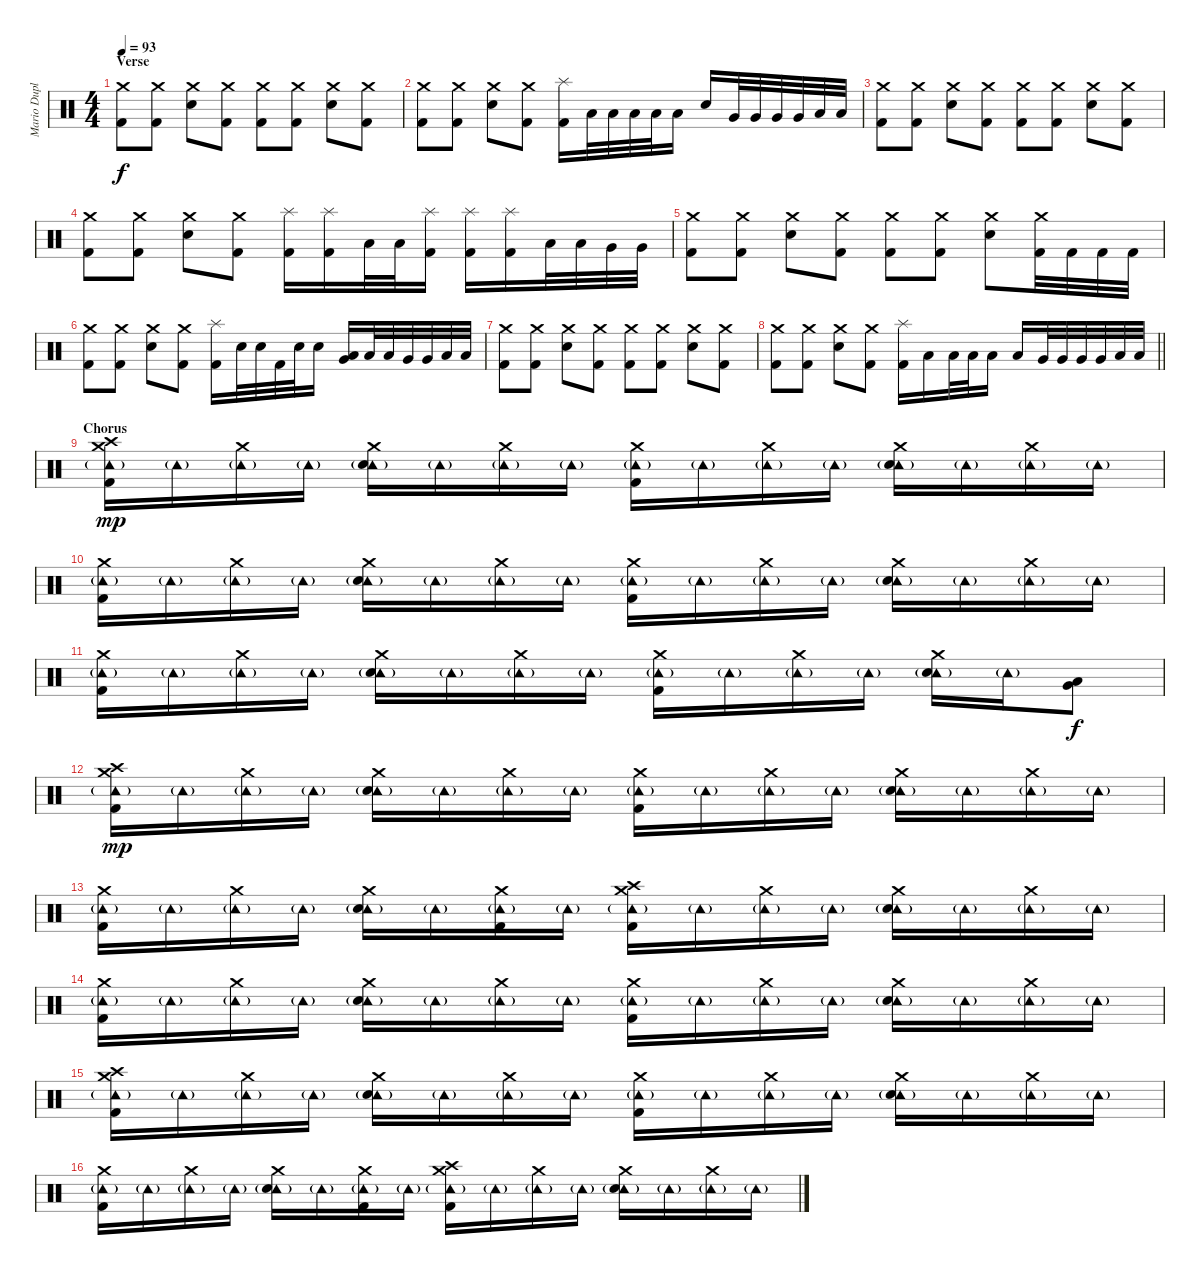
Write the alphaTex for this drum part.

\track ("Mario Duplantier" "Mario Dupl") {instrument percussion}
\staff {score}
\articulation defaults
\ts (4 4)
\section ("" "Verse")
\tempo 93
\clef neutral
\ks c
("Crash medium (hit)" "Kick (hit) 2").8{dy f} ("Crash medium (hit)" "Kick (hit) 2").8 ("Crash medium (hit)" "Electric Snare (hit)").8 ("Crash medium (hit)" "Kick (hit) 2").8 ("Crash medium (hit)" "Kick (hit) 2").8 ("Crash medium (hit)" "Kick (hit) 2").8 ("Crash medium (hit)" "Electric Snare (hit)").8 ("Crash medium (hit)" "Kick (hit) 2").8 |
("Crash medium (hit)" "Kick (hit) 2").8 ("Crash medium (hit)" "Kick (hit) 2").8 ("Crash medium (hit)" "Electric Snare (hit)").8 ("Crash medium (hit)" "Kick (hit) 2").8 ("Splash (hit)" "Kick (hit) 2").16 "Low Tom (hit)".32 "Low Tom (hit)".32 "Low Tom (hit)".32 "Low Tom (hit)".32 "Low Tom (hit)".16 "Electric Snare (hit)".16 "Very Low Tom (hit)".32 "Very Low Tom (hit)".32 "Very Low Tom (hit)".32 "Very Low Tom (hit)".32 "Low Floor Tom (hit)".32 "Low Floor Tom (hit)".32 |
("Crash medium (hit)" "Kick (hit) 2").8 ("Crash medium (hit)" "Kick (hit) 2").8 ("Crash medium (hit)" "Electric Snare (hit)").8 ("Crash medium (hit)" "Kick (hit) 2").8 ("Crash medium (hit)" "Kick (hit) 2").8 ("Crash medium (hit)" "Kick (hit) 2").8 ("Crash medium (hit)" "Electric Snare (hit)").8 ("Crash medium (hit)" "Kick (hit) 2").8 |
("Crash medium (hit)" "Kick (hit) 2").8 ("Crash medium (hit)" "Kick (hit) 2").8 ("Crash medium (hit)" "Electric Snare (hit)").8 ("Crash medium (hit)" "Kick (hit) 2").8 ("Splash (hit)" "Kick (hit) 2").16 ("Splash (hit)" "Kick (hit) 2").16 "Low Tom (hit)".32 "Low Tom (hit)".32 ("Splash (hit)" "Kick (hit) 2").16 ("Splash (hit)" "Kick (hit) 2").16 ("Splash (hit)" "Kick (hit) 2").16 "Low Tom (hit)".32 "Low Tom (hit)".32 "Very Low Tom (hit)".32 "Very Low Tom (hit)".32 |
("Crash medium (hit)" "Kick (hit) 2").8 ("Crash medium (hit)" "Kick (hit) 2").8 ("Crash medium (hit)" "Electric Snare (hit)").8 ("Crash medium (hit)" "Kick (hit) 2").8 ("Crash medium (hit)" "Kick (hit) 2").8 ("Crash medium (hit)" "Kick (hit) 2").8 ("Crash medium (hit)" "Electric Snare (hit)").8 ("Crash medium (hit)" "Kick (hit) 2").32 "Kick (hit) 2".32 "Kick (hit) 2".32 "Kick (hit) 2".32 |
("Crash medium (hit)" "Kick (hit) 2").8 ("Crash medium (hit)" "Kick (hit) 2").8 ("Crash medium (hit)" "Electric Snare (hit)").8 ("Crash medium (hit)" "Kick (hit) 2").8 ("Splash (hit)" "Kick (hit) 2").16 "Electric Snare (hit)".32 "Electric Snare (hit)".32 "Kick (hit) 2".32 "Electric Snare (hit)".32 "Electric Snare (hit)".16 ("Very Low Tom (hit)" "Low Floor Tom (hit)").16 "Low Tom (hit)".32 "Low Tom (hit)".32 "Very Low Tom (hit)".32 "Very Low Tom (hit)".32 "Low Floor Tom (hit)".32 "Low Floor Tom (hit)".32 |
("Crash medium (hit)" "Kick (hit) 2").8 ("Crash medium (hit)" "Kick (hit) 2").8 ("Crash medium (hit)" "Electric Snare (hit)").8 ("Crash medium (hit)" "Kick (hit) 2").8 ("Crash medium (hit)" "Kick (hit) 2").8 ("Crash medium (hit)" "Kick (hit) 2").8 ("Crash medium (hit)" "Electric Snare (hit)").8 ("Crash medium (hit)" "Kick (hit) 2").8 |
\barLineRight lightlight
("Crash medium (hit)" "Kick (hit) 2").8 ("Crash medium (hit)" "Kick (hit) 2").8 ("Crash medium (hit)" "Electric Snare (hit)").8 ("Crash medium (hit)" "Kick (hit) 2").8 ("Splash (hit)" "Kick (hit) 2").16 "Low Tom (hit)".16 "Low Tom (hit)".32 "Low Tom (hit)".32 "Low Tom (hit)".16 "Low Tom (hit)".16 "Very Low Tom (hit)".32 "Very Low Tom (hit)".32 "Very Low Tom (hit)".32 "Very Low Tom (hit)".32 "Low Floor Tom (hit)".32 "Low Floor Tom (hit)".32 |
\section ("" "Chorus")
("Tambourine (hit)"{g} "Crash high (hit)" "Crash medium (hit)" "Kick (hit) 2").16{dy mp} "Tambourine (hit)"{g}.16 ("Tambourine (hit)"{g} "Crash medium (hit)").16 "Tambourine (hit)"{g}.16 ("Tambourine (hit)"{g} "Crash medium (hit)" "Electric Snare (hit)").16 "Tambourine (hit)"{g}.16 ("Tambourine (hit)"{g} "Crash medium (hit)").16 "Tambourine (hit)"{g}.16 ("Tambourine (hit)"{g} "Crash medium (hit)" "Kick (hit) 2").16 "Tambourine (hit)"{g}.16 ("Tambourine (hit)"{g} "Crash medium (hit)").16 "Tambourine (hit)"{g}.16 ("Tambourine (hit)"{g} "Crash medium (hit)" "Electric Snare (hit)").16 "Tambourine (hit)"{g}.16 ("Tambourine (hit)"{g} "Crash medium (hit)").16 "Tambourine (hit)"{g}.16 |
("Tambourine (hit)"{g} "Crash medium (hit)" "Kick (hit) 2").16 "Tambourine (hit)"{g}.16 ("Tambourine (hit)"{g} "Crash medium (hit)").16 "Tambourine (hit)"{g}.16 ("Tambourine (hit)"{g} "Crash medium (hit)" "Electric Snare (hit)").16 "Tambourine (hit)"{g}.16 ("Tambourine (hit)"{g} "Crash medium (hit)").16 "Tambourine (hit)"{g}.16 ("Tambourine (hit)"{g} "Crash medium (hit)" "Kick (hit) 2").16 "Tambourine (hit)"{g}.16 ("Tambourine (hit)"{g} "Crash medium (hit)").16 "Tambourine (hit)"{g}.16 ("Tambourine (hit)"{g} "Crash medium (hit)" "Electric Snare (hit)").16 "Tambourine (hit)"{g}.16 ("Tambourine (hit)"{g} "Crash medium (hit)").16 "Tambourine (hit)"{g}.16 |
("Tambourine (hit)"{g} "Crash medium (hit)" "Kick (hit) 2").16 "Tambourine (hit)"{g}.16 ("Tambourine (hit)"{g} "Crash medium (hit)").16 "Tambourine (hit)"{g}.16 ("Tambourine (hit)"{g} "Crash medium (hit)" "Electric Snare (hit)").16 "Tambourine (hit)"{g}.16 ("Tambourine (hit)"{g} "Crash medium (hit)").16 "Tambourine (hit)"{g}.16 ("Tambourine (hit)"{g} "Crash medium (hit)" "Kick (hit) 2").16 "Tambourine (hit)"{g}.16 ("Tambourine (hit)"{g} "Crash medium (hit)").16 "Tambourine (hit)"{g}.16 ("Tambourine (hit)"{g} "Crash medium (hit)" "Electric Snare (hit)").16 "Tambourine (hit)"{g}.16 ("Very Low Tom (hit)" "Low Floor Tom (hit)").8{dy f} |
("Tambourine (hit)"{g} "Crash high (hit)" "Crash medium (hit)" "Kick (hit) 2").16{dy mp} "Tambourine (hit)"{g}.16 ("Tambourine (hit)"{g} "Crash medium (hit)").16 "Tambourine (hit)"{g}.16 ("Tambourine (hit)"{g} "Crash medium (hit)" "Electric Snare (hit)").16 "Tambourine (hit)"{g}.16 ("Tambourine (hit)"{g} "Crash medium (hit)").16 "Tambourine (hit)"{g}.16 ("Tambourine (hit)"{g} "Crash medium (hit)" "Kick (hit) 2").16 "Tambourine (hit)"{g}.16 ("Tambourine (hit)"{g} "Crash medium (hit)").16 "Tambourine (hit)"{g}.16 ("Tambourine (hit)"{g} "Crash medium (hit)" "Electric Snare (hit)").16 "Tambourine (hit)"{g}.16 ("Tambourine (hit)"{g} "Crash medium (hit)").16 "Tambourine (hit)"{g}.16 |
("Tambourine (hit)"{g} "Crash medium (hit)" "Kick (hit) 2").16 "Tambourine (hit)"{g}.16 ("Tambourine (hit)"{g} "Crash medium (hit)").16 "Tambourine (hit)"{g}.16 ("Tambourine (hit)"{g} "Crash medium (hit)" "Electric Snare (hit)").16 "Tambourine (hit)"{g}.16 ("Tambourine (hit)"{g} "Crash medium (hit)" "Kick (hit) 2").16 "Tambourine (hit)"{g}.16 ("Tambourine (hit)"{g} "Crash high (hit)" "Crash medium (hit)" "Kick (hit) 2").16 "Tambourine (hit)"{g}.16 ("Tambourine (hit)"{g} "Crash medium (hit)").16 "Tambourine (hit)"{g}.16 ("Tambourine (hit)"{g} "Crash medium (hit)" "Electric Snare (hit)").16 "Tambourine (hit)"{g}.16 ("Tambourine (hit)"{g} "Crash medium (hit)").16 "Tambourine (hit)"{g}.16 |
("Tambourine (hit)"{g} "Crash medium (hit)" "Kick (hit) 2").16 "Tambourine (hit)"{g}.16 ("Tambourine (hit)"{g} "Crash medium (hit)").16 "Tambourine (hit)"{g}.16 ("Tambourine (hit)"{g} "Crash medium (hit)" "Electric Snare (hit)").16 "Tambourine (hit)"{g}.16 ("Tambourine (hit)"{g} "Crash medium (hit)").16 "Tambourine (hit)"{g}.16 ("Tambourine (hit)"{g} "Crash medium (hit)" "Kick (hit) 2").16 "Tambourine (hit)"{g}.16 ("Tambourine (hit)"{g} "Crash medium (hit)").16 "Tambourine (hit)"{g}.16 ("Tambourine (hit)"{g} "Crash medium (hit)" "Electric Snare (hit)").16 "Tambourine (hit)"{g}.16 ("Tambourine (hit)"{g} "Crash medium (hit)").16 "Tambourine (hit)"{g}.16 |
("Tambourine (hit)"{g} "Crash high (hit)" "Crash medium (hit)" "Kick (hit) 2").16 "Tambourine (hit)"{g}.16 ("Tambourine (hit)"{g} "Crash medium (hit)").16 "Tambourine (hit)"{g}.16 ("Tambourine (hit)"{g} "Crash medium (hit)" "Electric Snare (hit)").16 "Tambourine (hit)"{g}.16 ("Tambourine (hit)"{g} "Crash medium (hit)").16 "Tambourine (hit)"{g}.16 ("Tambourine (hit)"{g} "Crash medium (hit)" "Kick (hit) 2").16 "Tambourine (hit)"{g}.16 ("Tambourine (hit)"{g} "Crash medium (hit)").16 "Tambourine (hit)"{g}.16 ("Tambourine (hit)"{g} "Crash medium (hit)" "Electric Snare (hit)").16 "Tambourine (hit)"{g}.16 ("Tambourine (hit)"{g} "Crash medium (hit)").16 "Tambourine (hit)"{g}.16 |
("Tambourine (hit)"{g} "Crash medium (hit)" "Kick (hit) 2").16 "Tambourine (hit)"{g}.16 ("Tambourine (hit)"{g} "Crash medium (hit)").16 "Tambourine (hit)"{g}.16 ("Tambourine (hit)"{g} "Crash medium (hit)" "Electric Snare (hit)").16 "Tambourine (hit)"{g}.16 ("Tambourine (hit)"{g} "Crash medium (hit)" "Kick (hit) 2").16 "Tambourine (hit)"{g}.16 ("Tambourine (hit)"{g} "Crash high (hit)" "Crash medium (hit)" "Kick (hit) 2").16 "Tambourine (hit)"{g}.16 ("Tambourine (hit)"{g} "Crash medium (hit)").16 "Tambourine (hit)"{g}.16 ("Tambourine (hit)"{g} "Crash medium (hit)" "Electric Snare (hit)").16 "Tambourine (hit)"{g}.16 ("Tambourine (hit)"{g} "Crash medium (hit)").16 "Tambourine (hit)"{g}.16
